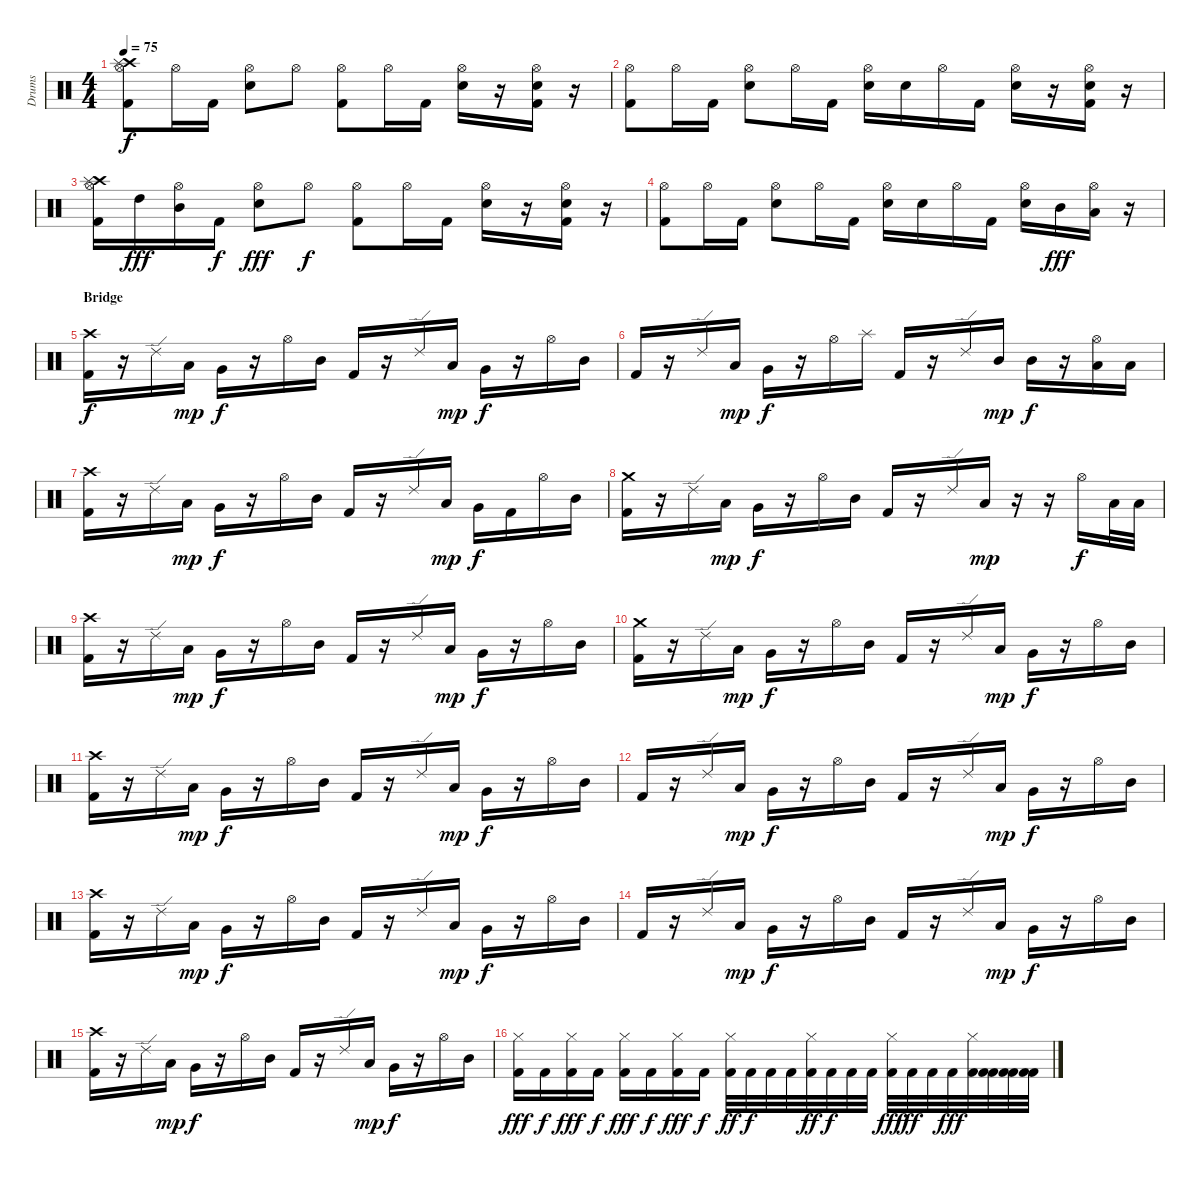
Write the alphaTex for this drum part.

\track ("Drums" "Drums") {instrument percussion}
\staff {score}
\articulation defaults
\ts (4 4)
\tempo 75
\clef neutral
\ks c
("Hi-Hat (open)" "Kick (hit) 2" "Crash high (hit)" "Splash (hit)").8{dy f} "Hi-Hat (open)".16 "Kick (hit) 2".16 ("Hi-Hat (open)" "Snare (hit) 2").8 "Hi-Hat (open)".8 ("Hi-Hat (open)" "Kick (hit) 2").8 "Hi-Hat (open)".16 "Kick (hit) 2".16 ("Hi-Hat (open)" "Snare (hit) 2").16 r.16 ("Hi-Hat (open)" "Kick (hit) 2" "Snare (hit) 2").16 r.16 |
("Hi-Hat (open)" "Kick (hit) 2").8 "Hi-Hat (open)".16 "Kick (hit) 2".16 ("Hi-Hat (open)" "Snare (hit) 2").8 "Hi-Hat (open)".16 "Kick (hit) 2".16 ("Hi-Hat (open)" "Snare (hit) 2").16 "Snare (hit) 2".16 "Hi-Hat (open)".16 "Kick (hit) 2".16 ("Hi-Hat (open)" "Snare (hit) 2").16 r.16 ("Hi-Hat (open)" "Kick (hit) 2" "Snare (hit) 2").16 r.16 |
("Hi-Hat (open)" "Kick (hit) 2" "Crash high (hit)" "Splash (hit)").16 "High Tom (hit)".16{dy fff} ("Hi-Hat (open)" "Mid Tom (hit)").16 "Kick (hit) 2".16{dy f} ("Hi-Hat (open)" "Snare (hit) 2").8{dy fff} "Hi-Hat (open)".8{dy f} ("Hi-Hat (open)" "Kick (hit) 2").8 "Hi-Hat (open)".16 "Kick (hit) 2".16 ("Hi-Hat (open)" "Snare (hit) 2").16 r.16 ("Hi-Hat (open)" "Kick (hit) 2" "Snare (hit) 2").16 r.16 |
("Hi-Hat (open)" "Kick (hit) 2").8 "Hi-Hat (open)".16 "Kick (hit) 2".16 ("Hi-Hat (open)" "Snare (hit) 2").8 "Hi-Hat (open)".16 "Kick (hit) 2".16 ("Hi-Hat (open)" "Snare (hit) 2").16 "Snare (hit) 2".16 "Hi-Hat (open)".16 "Kick (hit) 2".16 ("Hi-Hat (open)" "Snare (hit) 2").16 "Mid Tom (hit)".16{dy fff} ("Hi-Hat (open)" "Low Tom (hit)").16 r.16 |
\section ("" "Bridge")
("Kick (hit) 2" "Crash high (hit)").16{dy f} r.16 "Ride (edge) 2".16 "Low Tom (hit)".16{dy mp} "Very Low Tom (hit)".16{dy f} r.16 "Hi-Hat (open)".16 "Mid Tom (hit)".16 "Kick (hit) 2".16 r.16 "Ride (edge) 2".16 "Low Tom (hit)".16{dy mp} "Very Low Tom (hit)".16{dy f} r.16 "Hi-Hat (open)".16 "Mid Tom (hit)".16 |
"Kick (hit) 2".16 r.16 "Ride (edge) 2".16 "Low Tom (hit)".16{dy mp} "Very Low Tom (hit)".16{dy f} r.16 "Hi-Hat (open)".16 "Splash (hit)".16 "Kick (hit) 2".16 r.16 "Ride (edge) 2".16 "Mid Tom (hit)".16{dy mp} "Mid Tom (hit)".16{dy f} r.16 ("Hi-Hat (open)" "Low Tom (hit)").16 "Low Tom (hit)".16 |
("Kick (hit) 2" "Crash high (hit)").16 r.16 "Ride (edge) 2".16 "Low Tom (hit)".16{dy mp} "Very Low Tom (hit)".16{dy f} r.16 "Hi-Hat (open)".16 "Mid Tom (hit)".16 "Kick (hit) 2".16 r.16 "Ride (edge) 2".16 "Low Tom (hit)".16{dy mp} "Very Low Tom (hit)".16{dy f} "Kick (hit) 2".16 "Hi-Hat (open)".16 "Mid Tom (hit)".16 |
("Kick (hit) 2" "Crash medium (hit)").16 r.16 "Ride (edge) 2".16 "Low Tom (hit)".16{dy mp} "Very Low Tom (hit)".16{dy f} r.16 "Hi-Hat (open)".16 "Mid Tom (hit)".16 "Kick (hit) 2".16 r.16 "Ride (edge) 2".16 "Low Tom (hit)".16{dy mp} r.16 r.16 "Hi-Hat (open)".16{dy f} "Low Tom (hit)".32 "Low Tom (hit)".32 |
("Kick (hit) 2" "Crash high (hit)").16 r.16 "Ride (edge) 2".16 "Low Tom (hit)".16{dy mp} "Very Low Tom (hit)".16{dy f} r.16 "Hi-Hat (open)".16 "Mid Tom (hit)".16 "Kick (hit) 2".16 r.16 "Ride (edge) 2".16 "Low Tom (hit)".16{dy mp} "Very Low Tom (hit)".16{dy f} r.16 "Hi-Hat (open)".16 "Mid Tom (hit)".16 |
("Kick (hit) 2" "Crash medium (hit)").16 r.16 "Ride (edge) 2".16 "Low Tom (hit)".16{dy mp} "Very Low Tom (hit)".16{dy f} r.16 "Hi-Hat (open)".16 "Mid Tom (hit)".16 "Kick (hit) 2".16 r.16 "Ride (edge) 2".16 "Low Tom (hit)".16{dy mp} "Very Low Tom (hit)".16{dy f} r.16 "Hi-Hat (open)".16 "Mid Tom (hit)".16 |
("Kick (hit) 2" "Crash high (hit)").16 r.16 "Ride (edge) 2".16 "Low Tom (hit)".16{dy mp} "Very Low Tom (hit)".16{dy f} r.16 "Hi-Hat (open)".16 "Mid Tom (hit)".16 "Kick (hit) 2".16 r.16 "Ride (edge) 2".16 "Low Tom (hit)".16{dy mp} "Very Low Tom (hit)".16{dy f} r.16 "Hi-Hat (open)".16 "Mid Tom (hit)".16 |
"Kick (hit) 2".16 r.16 "Ride (edge) 2".16 "Low Tom (hit)".16{dy mp} "Very Low Tom (hit)".16{dy f} r.16 "Hi-Hat (open)".16 "Mid Tom (hit)".16 "Kick (hit) 2".16 r.16 "Ride (edge) 2".16 "Low Tom (hit)".16{dy mp} "Very Low Tom (hit)".16{dy f} r.16 "Hi-Hat (open)".16 "Mid Tom (hit)".16 |
("Kick (hit) 2" "Crash high (hit)").16 r.16 "Ride (edge) 2".16 "Low Tom (hit)".16{dy mp} "Very Low Tom (hit)".16{dy f} r.16 "Hi-Hat (open)".16 "Mid Tom (hit)".16 "Kick (hit) 2".16 r.16 "Ride (edge) 2".16 "Low Tom (hit)".16{dy mp} "Very Low Tom (hit)".16{dy f} r.16 "Hi-Hat (open)".16 "Mid Tom (hit)".16 |
"Kick (hit) 2".16 r.16 "Ride (edge) 2".16 "Low Tom (hit)".16{dy mp} "Very Low Tom (hit)".16{dy f} r.16 "Hi-Hat (open)".16 "Mid Tom (hit)".16 "Kick (hit) 2".16 r.16 "Ride (edge) 2".16 "Low Tom (hit)".16{dy mp} "Very Low Tom (hit)".16{dy f} r.16 "Hi-Hat (open)".16 "Mid Tom (hit)".16 |
("Kick (hit) 2" "Crash high (hit)").16 r.16 "Ride (edge) 2".16 "Low Tom (hit)".16{dy mp} "Very Low Tom (hit)".16{dy f} r.16 "Hi-Hat (open)".16 "Mid Tom (hit)".16 "Kick (hit) 2".16 r.16 "Ride (edge) 2".16 "Low Tom (hit)".16{dy mp} "Very Low Tom (hit)".16{dy f} r.16 "Hi-Hat (open)".16 "Mid Tom (hit)".16 |
("Kick (hit) 2" "Hi-Hat (closed)").16{dy fff} "Kick (hit) 2".16{dy f} ("Kick (hit) 2" "Hi-Hat (closed)").16{dy fff} "Kick (hit) 2".16{dy f} ("Kick (hit) 2" "Hi-Hat (closed)").16{dy fff} "Kick (hit) 2".16{dy f} ("Kick (hit) 2" "Hi-Hat (closed)").16{dy fff} "Kick (hit) 2".16{dy f} ("Kick (hit) 2" "Hi-Hat (closed)").32{dy ff} "Kick (hit) 2".32{dy f} "Kick (hit) 2".32 "Kick (hit) 2".32 ("Kick (hit) 2" "Hi-Hat (closed)").32{dy ff} "Kick (hit) 2".32{dy f} "Kick (hit) 2".32 "Kick (hit) 2".32 ("Kick (hit) 2" "Hi-Hat (closed)").32{dy fff} "Kick (hit) 2".32{dy ff} "Kick (hit) 2".32 "Kick (hit) 2".32{dy fff} ("Kick (hit) 2" "Hi-Hat (closed)").32 ("Kick (hit) 2" "Kick (hit) 2").32 ("Kick (hit) 2" "Kick (hit) 2").32 ("Kick (hit) 2" "Kick (hit) 2").32
